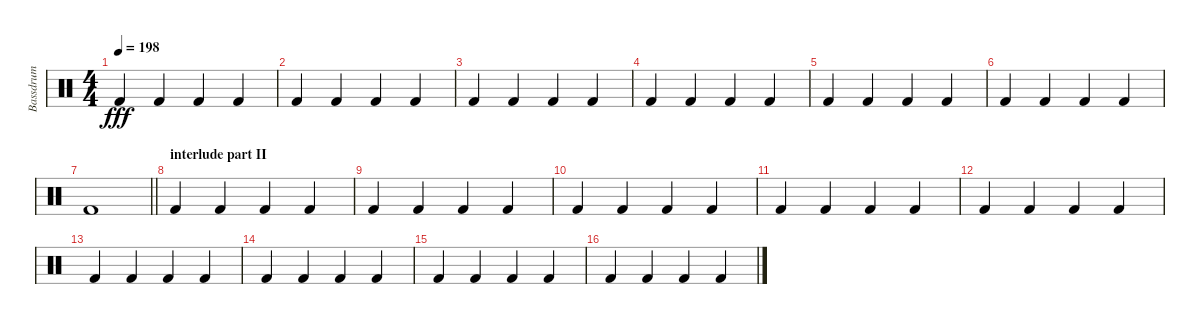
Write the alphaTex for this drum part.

\track ("Bassdrum" "Bassdrum") {instrument percussion}
\staff {score}
\articulation defaults
\ts (4 4)
\tempo 198
\clef neutral
\ks c "Kick (hit) 2".4{dy fff} "Kick (hit) 2".4 "Kick (hit) 2".4 "Kick (hit) 2".4
|
"Kick (hit) 2".4 "Kick (hit) 2".4 "Kick (hit) 2".4 "Kick (hit) 2".4 |
"Kick (hit) 2".4 "Kick (hit) 2".4 "Kick (hit) 2".4 "Kick (hit) 2".4 |
"Kick (hit) 2".4 "Kick (hit) 2".4 "Kick (hit) 2".4 "Kick (hit) 2".4 |
"Kick (hit) 2".4 "Kick (hit) 2".4 "Kick (hit) 2".4 "Kick (hit) 2".4 |
"Kick (hit) 2".4 "Kick (hit) 2".4 "Kick (hit) 2".4 "Kick (hit) 2".4 |
\barLineRight lightlight "Kick (hit) 2".1
|
\section ("" "interlude part II")
"Kick (hit) 2".4 "Kick (hit) 2".4 "Kick (hit) 2".4 "Kick (hit) 2".4 |
"Kick (hit) 2".4 "Kick (hit) 2".4 "Kick (hit) 2".4 "Kick (hit) 2".4 |
"Kick (hit) 2".4 "Kick (hit) 2".4 "Kick (hit) 2".4 "Kick (hit) 2".4 |
"Kick (hit) 2".4 "Kick (hit) 2".4 "Kick (hit) 2".4 "Kick (hit) 2".4 |
"Kick (hit) 2".4 "Kick (hit) 2".4 "Kick (hit) 2".4 "Kick (hit) 2".4 |
"Kick (hit) 2".4 "Kick (hit) 2".4 "Kick (hit) 2".4 "Kick (hit) 2".4 |
"Kick (hit) 2".4 "Kick (hit) 2".4 "Kick (hit) 2".4 "Kick (hit) 2".4 |
"Kick (hit) 2".4 "Kick (hit) 2".4 "Kick (hit) 2".4 "Kick (hit) 2".4 |
"Kick (hit) 2".4 "Kick (hit) 2".4 "Kick (hit) 2".4 "Kick (hit) 2".4
